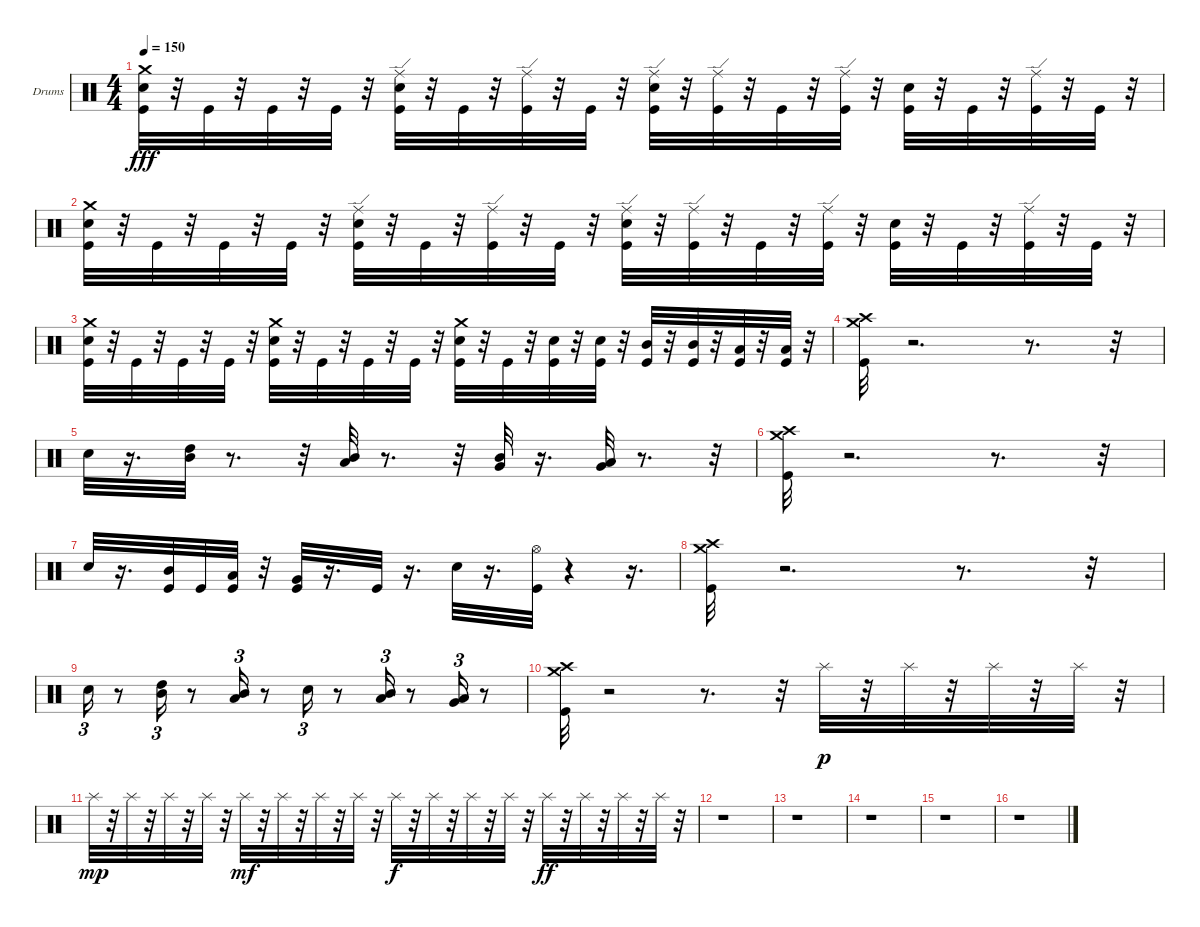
\bracketExtendMode groupsimilarinstruments
\firstSystemTrackNameOrientation horizontal
\otherSystemsTrackNameOrientation horizontal
\track ("Dave McClain" "Drums") {mute instrument percussion}
\staff {score}
\articulation defaults
\ts (4 4)
\tempo 150
\clef neutral
\ks c
("Crash medium (hit)" "Snare (hit) 2" "Kick (hit)").32{dy fff} r.32 "Kick (hit)".32 r.32 "Kick (hit)".32 r.32 "Kick (hit)".32 r.32 ("Ride (edge)" "Snare (hit) 2" "Kick (hit)").32 r.32 "Kick (hit)".32 r.32 ("Ride (edge)" "Kick (hit)").32 r.32 "Kick (hit)".32 r.32 ("Ride (edge)" "Snare (hit) 2" "Kick (hit)").32 r.32 ("Ride (edge)" "Kick (hit)").32 r.32 "Kick (hit)".32 r.32 ("Ride (edge)" "Kick (hit)").32 r.32 ("Snare (hit) 2" "Kick (hit)").32 r.32 "Kick (hit)".32 r.32 ("Ride (edge)" "Kick (hit)").32 r.32 "Kick (hit)".32 r.32 |
("Crash medium (hit)" "Snare (hit) 2" "Kick (hit)").32 r.32 "Kick (hit)".32 r.32 "Kick (hit)".32 r.32 "Kick (hit)".32 r.32 ("Ride (edge)" "Snare (hit) 2" "Kick (hit)").32 r.32 "Kick (hit)".32 r.32 ("Ride (edge)" "Kick (hit)").32 r.32 "Kick (hit)".32 r.32 ("Ride (edge)" "Snare (hit) 2" "Kick (hit)").32 r.32 ("Ride (edge)" "Kick (hit)").32 r.32 "Kick (hit)".32 r.32 ("Ride (edge)" "Kick (hit)").32 r.32 ("Snare (hit) 2" "Kick (hit)").32 r.32 "Kick (hit)".32 r.32 ("Ride (edge)" "Kick (hit)").32 r.32 "Kick (hit)".32 r.32 |
("Crash medium (hit)" "Snare (hit) 2" "Kick (hit)").32 r.32 "Kick (hit)".32 r.32 "Kick (hit)".32 r.32 "Kick (hit)".32 r.32 ("Crash medium (hit)" "Snare (hit) 2" "Kick (hit)").32 r.32 "Kick (hit)".32 r.32 "Kick (hit)".32 r.32 "Kick (hit)".32 r.32 ("Snare (hit) 2" "Crash medium (hit)" "Kick (hit)").32 r.32 "Kick (hit)".32 r.32 ("Snare (hit) 2" "Kick (hit)").32 r.32 ("Snare (hit) 2" "Kick (hit)").32 r.32 ("Mid Tom (hit)" "Kick (hit)").32 r.32 ("Mid Tom (hit)" "Kick (hit)").32 r.32 ("Low Tom (hit)" "Kick (hit)").32 r.32 ("Low Tom (hit)" "Kick (hit)").32 r.32 |
("Crash high (hit)" "Crash medium (hit)" "Kick (hit)").32 r.2{d} r.8{d} r.32 |
"Snare (hit) 2".32 r.16{d} ("High Tom (hit)" "Mid Tom (hit)").32 r.8{d} r.32 ("Low Tom (hit)" "Mid Tom (hit)").32 r.8{d} r.32 ("Mid Tom (hit)" "Very Low Tom (hit)").32 r.16{d} ("Low Tom (hit)" "Very Low Tom (hit)").32 r.8{d} r.32 |
("Crash high (hit)" "Crash medium (hit)" "Kick (hit)").32 r.2{d} r.8{d} r.32 |
"Snare (hit) 2".32 r.16{d} ("Mid Tom (hit)" "Kick (hit)").32 "Kick (hit)".32 ("Low Tom (hit)" "Kick (hit)").32 r.32 ("Very Low Tom (hit)" "Kick (hit)").32 r.16{d} "Kick (hit)".32 r.16{d} "Snare (hit) 2".32 r.16{d} ("Hi-Hat (open)" "Kick (hit)").32 r.4 r.16{d} |
("Crash high (hit)" "Crash medium (hit)" "Kick (hit)").32 r.2{d} r.8{d} r.32 |
"Snare (hit) 2".16{tu (3 2)} r.8 ("Mid Tom (hit)" "High Tom (hit)").16{tu (3 2)} r.8 ("Low Tom (hit)" "Mid Tom (hit)").16{tu (3 2)} r.8 "Snare (hit) 2".16{tu (3 2)} r.8 ("Low Tom (hit)" "Mid Tom (hit)").16{tu (3 2)} r.8 ("Low Tom (hit)" "Very Low Tom (hit)").16{tu (3 2)} r.8 |
("Crash high (hit)" "Crash medium (hit)" "Kick (hit)").32 r.2 r.8{d} r.32 "Splash (hit)".32{dy p} r.32 "Splash (hit)".32 r.32 "Splash (hit)".32 r.32 "Splash (hit)".32 r.32 |
"Splash (hit)".32{dy mp} r.32 "Splash (hit)".32 r.32 "Splash (hit)".32 r.32 "Splash (hit)".32 r.32 "Splash (hit)".32{dy mf} r.32 "Splash (hit)".32 r.32 "Splash (hit)".32 r.32 "Splash (hit)".32 r.32 "Splash (hit)".32{dy f} r.32 "Splash (hit)".32 r.32 "Splash (hit)".32 r.32 "Splash (hit)".32 r.32 "Splash (hit)".32{dy ff} r.32 "Splash (hit)".32 r.32 "Splash (hit)".32 r.32 "Splash (hit)".32 r.32 |
r.1 |
r.1 |
r.1 |
r.1 |
r.1
